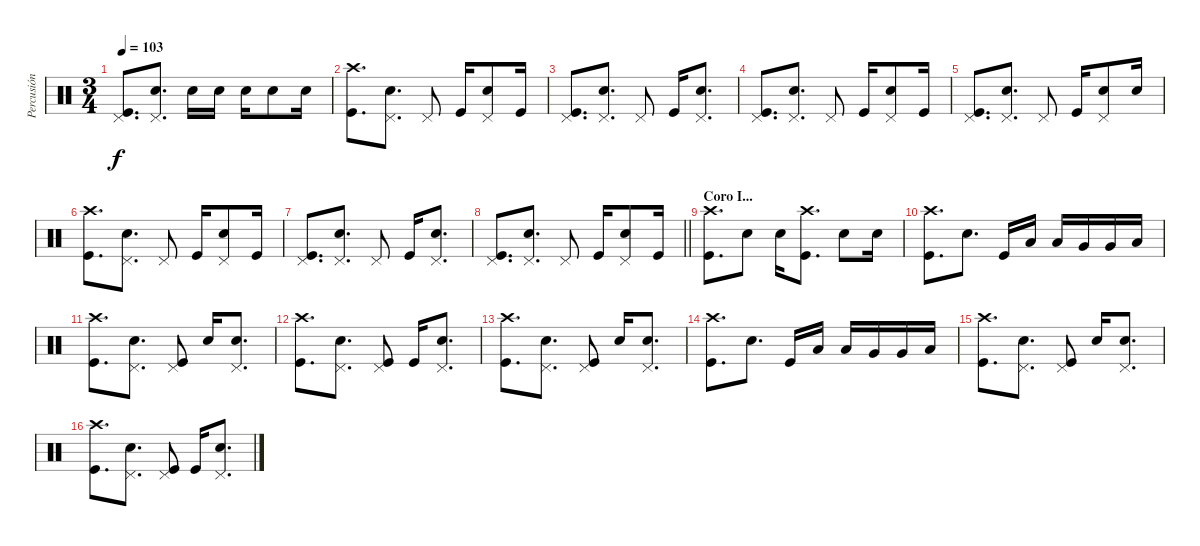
\track ("Percusión" "Percusión") {instrument percussion}
\staff {score}
\articulation defaults
\ts (3 4)
\tempo 103
\clef neutral
\ks c
("Pedal Hi-Hat (hit)" "Kick (hit)").8{d dy f} ("Pedal Hi-Hat (hit)" "Snare (hit) 2").8{d} "Snare (hit) 2".16 "Snare (hit) 2".16 "Snare (hit) 2".16 "Snare (hit) 2".8 "Snare (hit) 2".16 |
("Crash high (hit)" "Kick (hit)").8{d} ("Pedal Hi-Hat (hit)" "Snare (hit) 2").8{d} "Pedal Hi-Hat (hit)".8 "Kick (hit)".16 ("Pedal Hi-Hat (hit)" "Snare (hit) 2").8 "Kick (hit)".16 |
("Pedal Hi-Hat (hit)" "Kick (hit)").8{d} ("Pedal Hi-Hat (hit)" "Snare (hit) 2").8{d} "Pedal Hi-Hat (hit)".8 "Kick (hit)".16 ("Pedal Hi-Hat (hit)" "Snare (hit) 2").8{d} |
("Pedal Hi-Hat (hit)" "Kick (hit)").8{d} ("Pedal Hi-Hat (hit)" "Snare (hit) 2").8{d} "Pedal Hi-Hat (hit)".8 "Kick (hit)".16 ("Pedal Hi-Hat (hit)" "Snare (hit) 2").8 "Kick (hit)".16 |
("Pedal Hi-Hat (hit)" "Kick (hit)").8{d} ("Pedal Hi-Hat (hit)" "Snare (hit) 2").8{d} "Pedal Hi-Hat (hit)".8 "Kick (hit)".16 ("Pedal Hi-Hat (hit)" "Snare (hit) 2").8 "Snare (hit) 2".16 |
("Crash high (hit)" "Kick (hit)").8{d} ("Pedal Hi-Hat (hit)" "Snare (hit) 2").8{d} "Pedal Hi-Hat (hit)".8 "Kick (hit)".16 ("Pedal Hi-Hat (hit)" "Snare (hit) 2").8 "Kick (hit)".16 |
("Pedal Hi-Hat (hit)" "Kick (hit)").8{d} ("Pedal Hi-Hat (hit)" "Snare (hit) 2").8{d} "Pedal Hi-Hat (hit)".8 "Kick (hit)".16 ("Pedal Hi-Hat (hit)" "Snare (hit) 2").8{d} |
\barLineRight lightlight
("Pedal Hi-Hat (hit)" "Kick (hit)").8{d} ("Pedal Hi-Hat (hit)" "Snare (hit) 2").8{d} "Pedal Hi-Hat (hit)".8 "Kick (hit)".16 ("Pedal Hi-Hat (hit)" "Snare (hit) 2").8 "Kick (hit)".16 |
\section ("" "Coro I...")
("Crash high (hit)" "Kick (hit)").8{d} "Snare (hit) 2".8 "Snare (hit) 2".16 ("Crash high (hit)" "Kick (hit)").8{d} "Snare (hit) 2".8 "Snare (hit) 2".16 |
("Crash high (hit)" "Kick (hit)").8{d} "Snare (hit) 2".8{d} "Kick (hit)".16 "Low Tom (hit)".16 "Low Tom (hit)".16 "Very Low Tom (hit)".16 "Very Low Tom (hit)".16 "Low Floor Tom (hit)".16 |
("Crash high (hit)" "Kick (hit)").8{d} ("Pedal Hi-Hat (hit)" "Snare (hit) 2").8{d} ("Pedal Hi-Hat (hit)" "Kick (hit)").8 "Snare (hit) 2".16 ("Pedal Hi-Hat (hit)" "Snare (hit) 2").8{d} |
("Crash high (hit)" "Kick (hit)").8{d} ("Pedal Hi-Hat (hit)" "Snare (hit) 2").8{d} ("Pedal Hi-Hat (hit)" "Kick (hit)").8 "Kick (hit)".16 ("Pedal Hi-Hat (hit)" "Snare (hit) 2").8{d} |
("Crash high (hit)" "Kick (hit)").8{d} ("Pedal Hi-Hat (hit)" "Snare (hit) 2").8{d} ("Pedal Hi-Hat (hit)" "Kick (hit)").8 "Snare (hit) 2".16 ("Pedal Hi-Hat (hit)" "Snare (hit) 2").8{d} |
("Crash high (hit)" "Kick (hit)").8{d} "Snare (hit) 2".8{d} "Kick (hit)".16 "Low Tom (hit)".16 "Low Tom (hit)".16 "Very Low Tom (hit)".16 "Very Low Tom (hit)".16 "Low Floor Tom (hit)".16 |
("Crash high (hit)" "Kick (hit)").8{d} ("Pedal Hi-Hat (hit)" "Snare (hit) 2").8{d} ("Pedal Hi-Hat (hit)" "Kick (hit)").8 "Snare (hit) 2".16 ("Pedal Hi-Hat (hit)" "Snare (hit) 2").8{d} |
("Crash high (hit)" "Kick (hit)").8{d} ("Pedal Hi-Hat (hit)" "Snare (hit) 2").8{d} ("Pedal Hi-Hat (hit)" "Kick (hit)").8 "Kick (hit)".16 ("Pedal Hi-Hat (hit)" "Snare (hit) 2").8{d}
